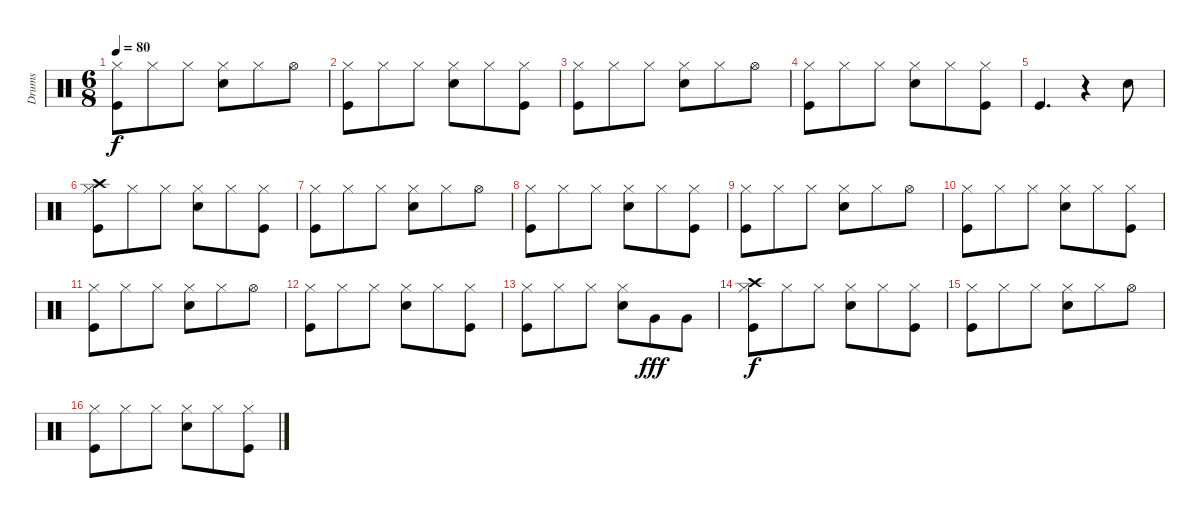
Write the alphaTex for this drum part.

\track ("Drums" "Drums") {instrument percussion}
\staff {score}
\articulation defaults
\ts (6 8)
\tempo 80
\clef neutral
\ks c
("Hi-Hat (closed)" "Kick (hit)").8{dy f} "Hi-Hat (closed)".8 "Hi-Hat (closed)".8 ("Hi-Hat (closed)" "Electric Snare (hit)").8 "Hi-Hat (closed)".8 "Hi-Hat (open)".8 |
("Hi-Hat (closed)" "Kick (hit)").8 "Hi-Hat (closed)".8 "Hi-Hat (closed)".8 ("Hi-Hat (closed)" "Electric Snare (hit)").8 "Hi-Hat (closed)".8 ("Hi-Hat (closed)" "Kick (hit)").8 |
("Hi-Hat (closed)" "Kick (hit)").8 "Hi-Hat (closed)".8 "Hi-Hat (closed)".8 ("Hi-Hat (closed)" "Electric Snare (hit)").8 "Hi-Hat (closed)".8 "Hi-Hat (open)".8 |
("Hi-Hat (closed)" "Kick (hit)").8 "Hi-Hat (closed)".8 "Hi-Hat (closed)".8 ("Hi-Hat (closed)" "Electric Snare (hit)").8 "Hi-Hat (closed)".8 ("Hi-Hat (closed)" "Kick (hit)").8 |
"Kick (hit)".4{d} r.4 "Electric Snare (hit)".8 |
("Hi-Hat (closed)" "Kick (hit)" "Crash high (hit)").8 "Hi-Hat (closed)".8 "Hi-Hat (closed)".8 ("Hi-Hat (closed)" "Electric Snare (hit)").8 "Hi-Hat (closed)".8 ("Hi-Hat (closed)" "Kick (hit)").8 |
("Hi-Hat (closed)" "Kick (hit)").8 "Hi-Hat (closed)".8 "Hi-Hat (closed)".8 ("Hi-Hat (closed)" "Electric Snare (hit)").8 "Hi-Hat (closed)".8 "Hi-Hat (open)".8 |
("Hi-Hat (closed)" "Kick (hit)").8 "Hi-Hat (closed)".8 "Hi-Hat (closed)".8 ("Hi-Hat (closed)" "Electric Snare (hit)").8 "Hi-Hat (closed)".8 ("Hi-Hat (closed)" "Kick (hit)").8 |
("Hi-Hat (closed)" "Kick (hit)").8 "Hi-Hat (closed)".8 "Hi-Hat (closed)".8 ("Hi-Hat (closed)" "Electric Snare (hit)").8 "Hi-Hat (closed)".8 "Hi-Hat (open)".8 |
("Hi-Hat (closed)" "Kick (hit)").8 "Hi-Hat (closed)".8 "Hi-Hat (closed)".8 ("Hi-Hat (closed)" "Electric Snare (hit)").8 "Hi-Hat (closed)".8 ("Hi-Hat (closed)" "Kick (hit)").8 |
("Hi-Hat (closed)" "Kick (hit)").8 "Hi-Hat (closed)".8 "Hi-Hat (closed)".8 ("Hi-Hat (closed)" "Electric Snare (hit)").8 "Hi-Hat (closed)".8 "Hi-Hat (open)".8 |
("Hi-Hat (closed)" "Kick (hit)").8 "Hi-Hat (closed)".8 "Hi-Hat (closed)".8 ("Hi-Hat (closed)" "Electric Snare (hit)").8 "Hi-Hat (closed)".8 ("Hi-Hat (closed)" "Kick (hit)").8 |
("Hi-Hat (closed)" "Kick (hit)").8 "Hi-Hat (closed)".8 "Hi-Hat (closed)".8 ("Hi-Hat (closed)" "Electric Snare (hit)").8 "Very Low Tom (hit)".8{dy fff} "Very Low Tom (hit)".8 |
("Hi-Hat (closed)" "Kick (hit)" "Crash high (hit)").8{dy f} "Hi-Hat (closed)".8 "Hi-Hat (closed)".8 ("Hi-Hat (closed)" "Electric Snare (hit)").8 "Hi-Hat (closed)".8 ("Hi-Hat (closed)" "Kick (hit)").8 |
("Hi-Hat (closed)" "Kick (hit)").8 "Hi-Hat (closed)".8 "Hi-Hat (closed)".8 ("Hi-Hat (closed)" "Electric Snare (hit)").8 "Hi-Hat (closed)".8 "Hi-Hat (open)".8 |
("Hi-Hat (closed)" "Kick (hit)").8 "Hi-Hat (closed)".8 "Hi-Hat (closed)".8 ("Hi-Hat (closed)" "Electric Snare (hit)").8 "Hi-Hat (closed)".8 ("Hi-Hat (closed)" "Kick (hit)").8
